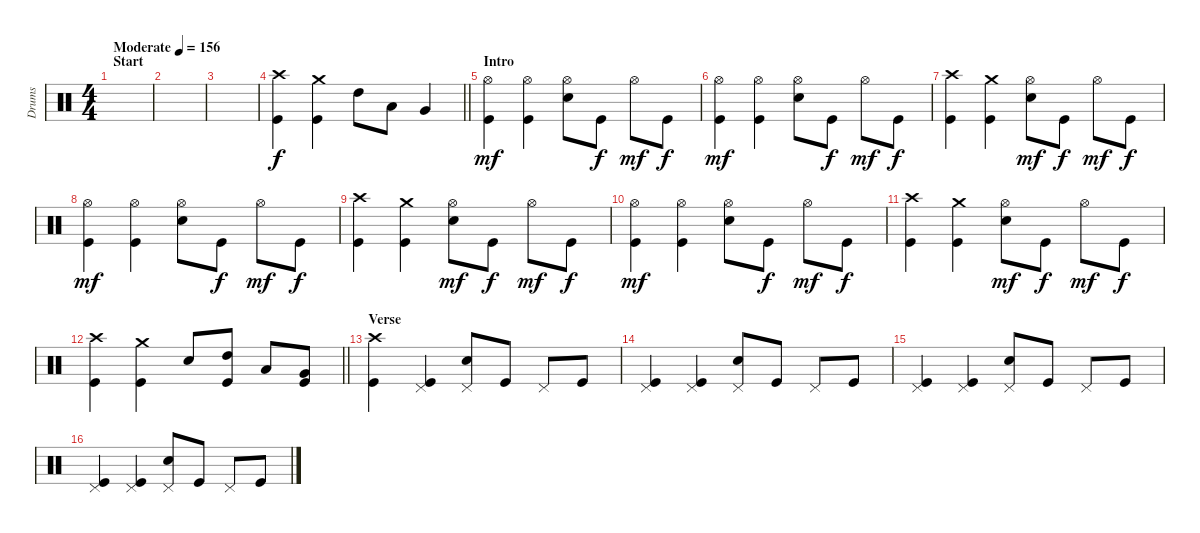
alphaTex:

\track ("Drums" "Drums") {instrument percussion}
\staff {score}
\articulation defaults
\ts (4 4)
\section ("" "Start")
\tempo (156 "Moderate")
\clef neutral
\ks c
|
|
|
\barLineRight lightlight
("Crash high (hit)" "Kick (hit)").4 ("Crash medium (hit)" "Kick (hit)").4 "High Tom (hit)".8{dy f} "Low Tom (hit)".8 "Very Low Tom (hit)".4 |
\section ("" "Intro")
("Kick (hit)" "Hi-Hat (open)").4{dy mf} ("Kick (hit)" "Hi-Hat (open)").4 ("Snare (hit) 2" "Hi-Hat (open)").8 "Kick (hit)".8{dy f} "Hi-Hat (open)".8{dy mf} "Kick (hit)".8{dy f} |
("Kick (hit)" "Hi-Hat (open)").4{dy mf} ("Kick (hit)" "Hi-Hat (open)").4 ("Snare (hit) 2" "Hi-Hat (open)").8 "Kick (hit)".8{dy f} "Hi-Hat (open)".8{dy mf} "Kick (hit)".8{dy f} |
("Kick (hit)" "Crash high (hit)").4 ("Kick (hit)" "Crash medium (hit)").4 ("Snare (hit) 2" "Hi-Hat (open)").8{dy mf} "Kick (hit)".8{dy f} "Hi-Hat (open)".8{dy mf} "Kick (hit)".8{dy f} |
("Kick (hit)" "Hi-Hat (open)").4{dy mf} ("Kick (hit)" "Hi-Hat (open)").4 ("Snare (hit) 2" "Hi-Hat (open)").8 "Kick (hit)".8{dy f} "Hi-Hat (open)".8{dy mf} "Kick (hit)".8{dy f} |
("Kick (hit)" "Crash high (hit)").4 ("Kick (hit)" "Crash medium (hit)").4 ("Snare (hit) 2" "Hi-Hat (open)").8{dy mf} "Kick (hit)".8{dy f} "Hi-Hat (open)".8{dy mf} "Kick (hit)".8{dy f} |
("Kick (hit)" "Hi-Hat (open)").4{dy mf} ("Kick (hit)" "Hi-Hat (open)").4 ("Snare (hit) 2" "Hi-Hat (open)").8 "Kick (hit)".8{dy f} "Hi-Hat (open)".8{dy mf} "Kick (hit)".8{dy f} |
("Kick (hit)" "Crash high (hit)").4 ("Kick (hit)" "Crash medium (hit)").4 ("Snare (hit) 2" "Hi-Hat (open)").8{dy mf} "Kick (hit)".8{dy f} "Hi-Hat (open)".8{dy mf} "Kick (hit)".8{dy f} |
\barLineRight lightlight
("Kick (hit)" "Crash high (hit)").4 ("Kick (hit)" "Crash medium (hit)").4 "Snare (hit) 2".8 ("High Tom (hit)" "Kick (hit)").8 "Low Tom (hit)".8 ("Kick (hit)" "Very Low Tom (hit)").8 |
\section ("" "Verse")
("Kick (hit)" "Crash high (hit)").4 ("Kick (hit)" "Pedal Hi-Hat (hit)").4 ("Snare (hit) 2" "Pedal Hi-Hat (hit)").8 "Kick (hit)".8 "Pedal Hi-Hat (hit)".8 "Kick (hit)".8 |
("Kick (hit)" "Pedal Hi-Hat (hit)").4 ("Kick (hit)" "Pedal Hi-Hat (hit)").4 ("Snare (hit) 2" "Pedal Hi-Hat (hit)").8 "Kick (hit)".8 "Pedal Hi-Hat (hit)".8 "Kick (hit)".8 |
("Kick (hit)" "Pedal Hi-Hat (hit)").4 ("Kick (hit)" "Pedal Hi-Hat (hit)").4 ("Snare (hit) 2" "Pedal Hi-Hat (hit)").8 "Kick (hit)".8 "Pedal Hi-Hat (hit)".8 "Kick (hit)".8 |
("Kick (hit)" "Pedal Hi-Hat (hit)").4 ("Kick (hit)" "Pedal Hi-Hat (hit)").4 ("Snare (hit) 2" "Pedal Hi-Hat (hit)").8 "Kick (hit)".8 "Pedal Hi-Hat (hit)".8 "Kick (hit)".8
